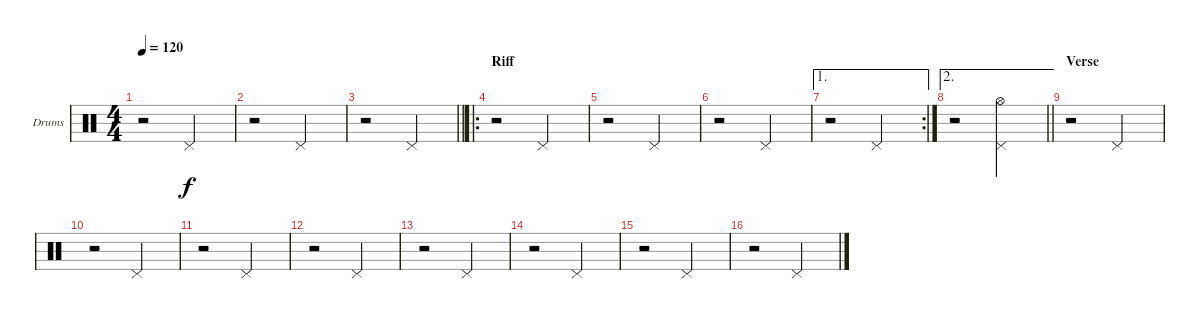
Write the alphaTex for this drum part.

\defaultSystemsLayout 4
\bracketExtendMode groupsimilarinstruments
\firstSystemTrackNameOrientation horizontal
\otherSystemsTrackNameOrientation horizontal
\track ("Drumkit" "Drums") {instrument percussion}
\staff {score}
\articulation defaults
\ts (4 4)
\tempo 120
\clef neutral
\scale
0.333333
\ks aminor
r.2{dy f} "Pedal Hi-Hat (hit)".2 |
\scale
0.311111 r.2 "Pedal Hi-Hat (hit)".2 |
\scale
0.311111
\barLineRight lightlight
r.2 "Pedal Hi-Hat (hit)".2 |
\ro
\section ("" "Riff")
\scale
0.377778 r.2 "Pedal Hi-Hat (hit)".2 |
\scale
0.321839 r.2 "Pedal Hi-Hat (hit)".2 |
\scale
0.321839 r.2 "Pedal Hi-Hat (hit)".2 |
\ae 1
\rc 2
\scale
0.356322 r.2 "Pedal Hi-Hat (hit)".2 |
\ae 2
\scale
0.333333
\barLineRight lightlight
r.2 ("Pedal Hi-Hat (hit)" "Hi-Hat (open)").2 |
\section ("" "Verse")
\scale
0.333333 r.2 "Pedal Hi-Hat (hit)".2 |
\scale
0.333333 r.2 "Pedal Hi-Hat (hit)".2 |
\scale
0.333333 r.2 "Pedal Hi-Hat (hit)".2 |
\scale
0.333333 r.2 "Pedal Hi-Hat (hit)".2 |
\scale
0.333333 r.2 "Pedal Hi-Hat (hit)".2 |
\scale
0.333333 r.2 "Pedal Hi-Hat (hit)".2 |
\scale
0.333333 r.2 "Pedal Hi-Hat (hit)".2 |
\scale
0.333333 r.2 "Pedal Hi-Hat (hit)".2
